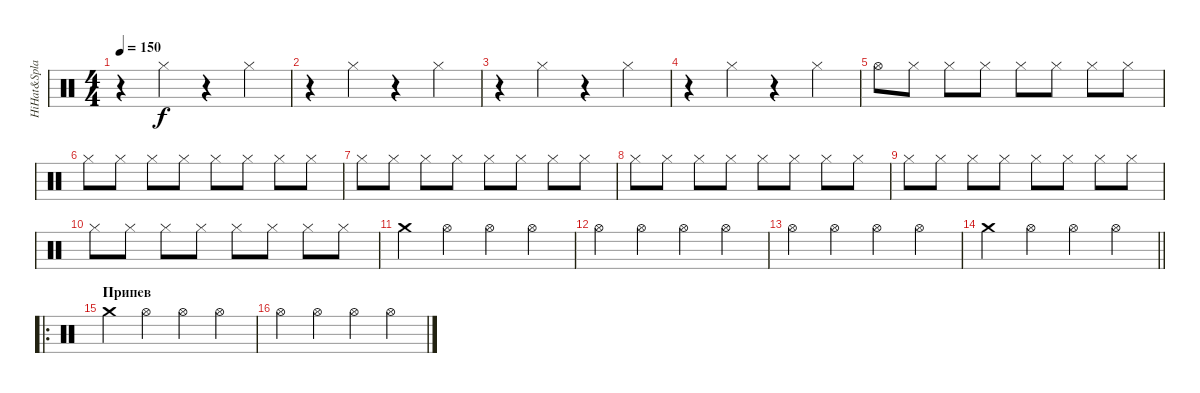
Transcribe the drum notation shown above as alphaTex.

\track ("HiHat&Splash" "HiHat&Spla") {instrument percussion}
\staff {score}
\articulation defaults
\ts (4 4)
\tempo 150
\clef neutral
\ks c
r.4{dy f} "Hi-Hat (closed)".4 r.4 "Hi-Hat (closed)".4 |
r.4 "Hi-Hat (closed)".4 r.4 "Hi-Hat (closed)".4 |
r.4 "Hi-Hat (closed)".4 r.4 "Hi-Hat (closed)".4 |
r.4 "Hi-Hat (closed)".4 r.4 "Hi-Hat (closed)".4 |
"Hi-Hat (open)".8 "Hi-Hat (closed)".8 "Hi-Hat (closed)".8 "Hi-Hat (closed)".8 "Hi-Hat (closed)".8 "Hi-Hat (closed)".8 "Hi-Hat (closed)".8 "Hi-Hat (closed)".8 |
"Hi-Hat (closed)".8 "Hi-Hat (closed)".8 "Hi-Hat (closed)".8 "Hi-Hat (closed)".8 "Hi-Hat (closed)".8 "Hi-Hat (closed)".8 "Hi-Hat (closed)".8 "Hi-Hat (closed)".8 |
"Hi-Hat (closed)".8 "Hi-Hat (closed)".8 "Hi-Hat (closed)".8 "Hi-Hat (closed)".8 "Hi-Hat (closed)".8 "Hi-Hat (closed)".8 "Hi-Hat (closed)".8 "Hi-Hat (closed)".8 |
"Hi-Hat (closed)".8 "Hi-Hat (closed)".8 "Hi-Hat (closed)".8 "Hi-Hat (closed)".8 "Hi-Hat (closed)".8 "Hi-Hat (closed)".8 "Hi-Hat (closed)".8 "Hi-Hat (closed)".8 |
"Hi-Hat (closed)".8 "Hi-Hat (closed)".8 "Hi-Hat (closed)".8 "Hi-Hat (closed)".8 "Hi-Hat (closed)".8 "Hi-Hat (closed)".8 "Hi-Hat (closed)".8 "Hi-Hat (closed)".8 |
"Hi-Hat (closed)".8 "Hi-Hat (closed)".8 "Hi-Hat (closed)".8 "Hi-Hat (closed)".8 "Hi-Hat (closed)".8 "Hi-Hat (closed)".8 "Hi-Hat (closed)".8 "Hi-Hat (closed)".8 |
"Crash medium (hit)".4 "Hi-Hat (open)".4 "Hi-Hat (open)".4 "Hi-Hat (open)".4 |
"Hi-Hat (open)".4 "Hi-Hat (open)".4 "Hi-Hat (open)".4 "Hi-Hat (open)".4 |
"Hi-Hat (open)".4 "Hi-Hat (open)".4 "Hi-Hat (open)".4 "Hi-Hat (open)".4 |
\barLineRight lightlight "Crash medium (hit)".4 "Hi-Hat (open)".4 "Hi-Hat (open)".4 "Hi-Hat (open)".4
|
\ro
\section ("" "Припев")
"Crash medium (hit)".4 "Hi-Hat (open)".4 "Hi-Hat (open)".4 "Hi-Hat (open)".4 |
"Hi-Hat (open)".4 "Hi-Hat (open)".4 "Hi-Hat (open)".4 "Hi-Hat (open)".4
